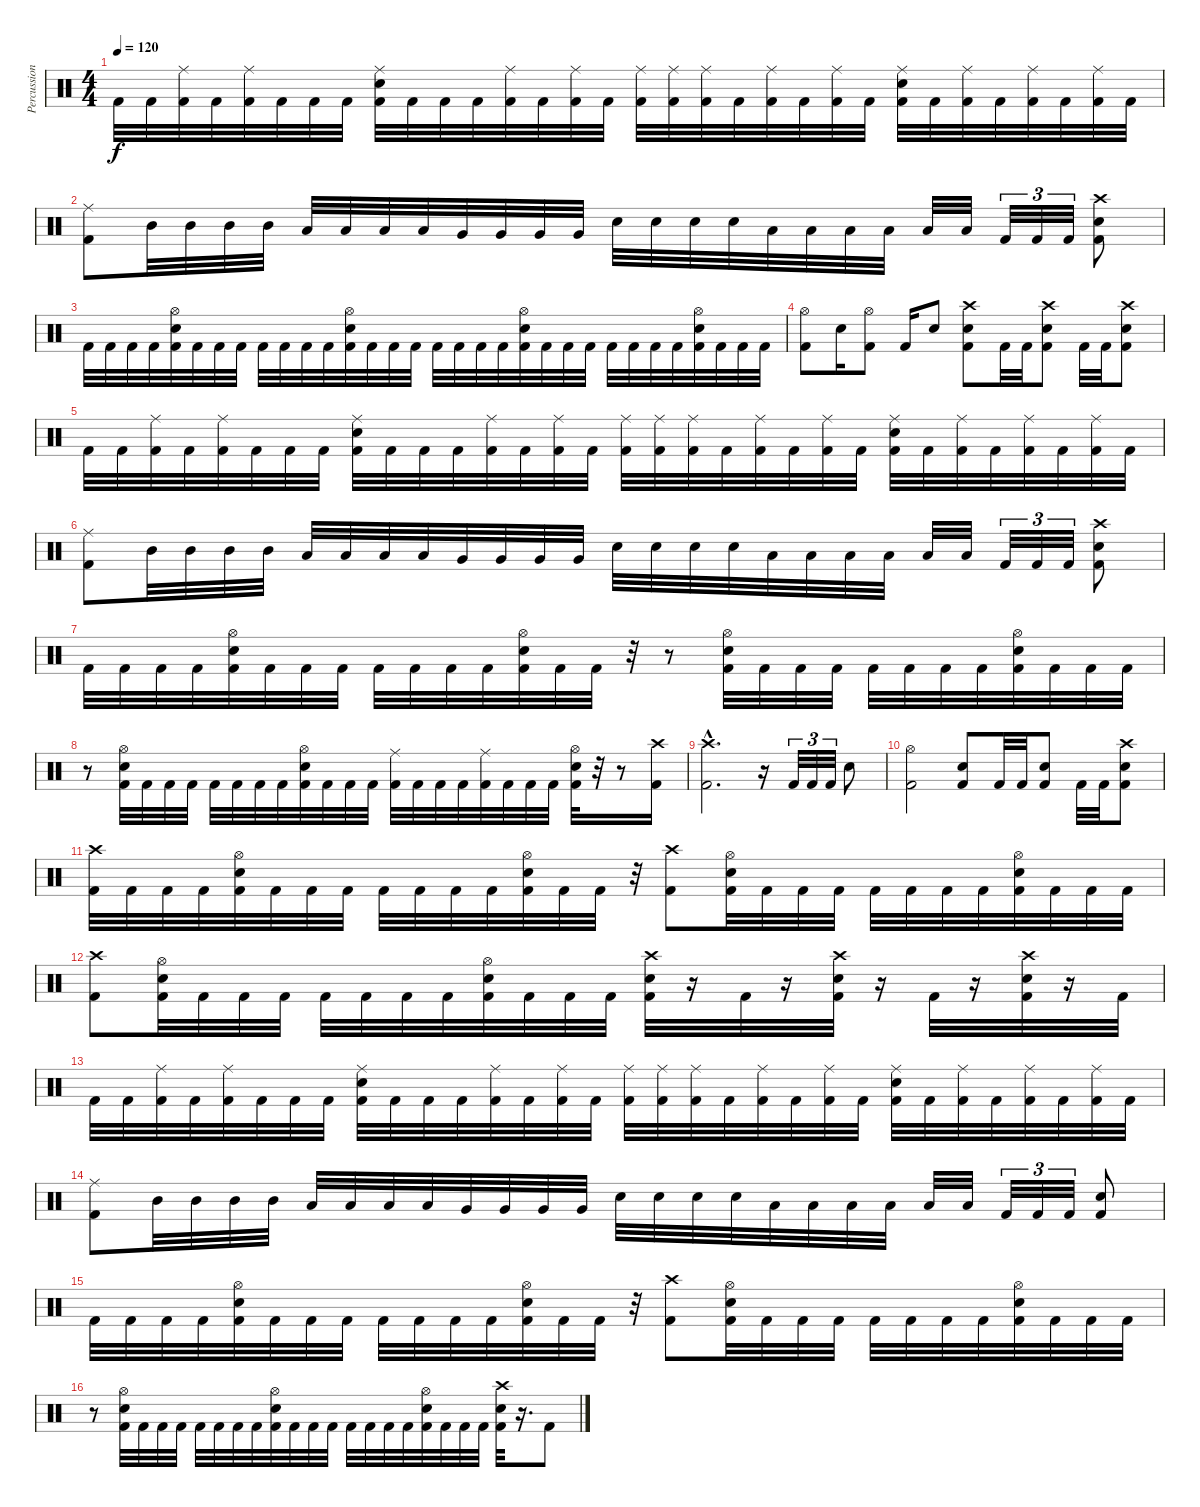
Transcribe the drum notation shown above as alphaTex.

\track ("Percussion" "Percussion") {instrument percussion}
\staff {score}
\articulation defaults
\ts (4 4)
\tempo 120
\clef neutral
\ks c "Kick (hit) 2".32{dy f} "Kick (hit) 2".32
("Ride (middle)" "Kick (hit) 2").32 "Kick (hit) 2".32 ("Ride (middle)" "Kick (hit) 2").32 "Kick (hit) 2".32 "Kick (hit) 2".32 "Kick (hit) 2".32 ("Ride (middle)" "Snare (hit) 2" "Kick (hit) 2").32 "Kick (hit) 2".32 "Kick (hit) 2".32 "Kick (hit) 2".32 ("Ride (middle)" "Kick (hit) 2").32 "Kick (hit) 2".32 ("Ride (middle)" "Kick (hit) 2").32 "Kick (hit) 2".32 ("Ride (middle)" "Kick (hit) 2").32 ("Ride (middle)" "Kick (hit) 2").32 ("Ride (middle)" "Kick (hit) 2").32 "Kick (hit) 2".32 ("Ride (middle)" "Kick (hit) 2").32 "Kick (hit) 2".32 ("Ride (middle)" "Kick (hit) 2").32 "Kick (hit) 2".32 ("Ride (middle)" "Snare (hit) 2" "Kick (hit) 2").32 "Kick (hit) 2".32 ("Ride (middle)" "Kick (hit) 2").32 "Kick (hit) 2".32 ("Ride (middle)" "Kick (hit) 2").32 "Kick (hit) 2".32 ("Ride (middle)" "Kick (hit) 2").32 "Kick (hit) 2".32 |
("Ride (middle)" "Kick (hit) 2").8 "Mid Tom (hit)".32 "Mid Tom (hit)".32 "Mid Tom (hit)".32 "Mid Tom (hit)".32 "Low Tom (hit)".32 "Low Tom (hit)".32 "Low Tom (hit)".32 "Low Tom (hit)".32 "Very Low Tom (hit)".32 "Very Low Tom (hit)".32 "Very Low Tom (hit)".32 "Very Low Tom (hit)".32 "Snare (hit) 2".32 "Snare (hit) 2".32 "Snare (hit) 2".32 "Snare (hit) 2".32 "Low Tom (hit)".32 "Low Tom (hit)".32 "Low Tom (hit)".32 "Low Tom (hit)".32 "Low Tom (hit)".32 "Low Tom (hit)".32 "Kick (hit) 2".32{tu (3 2)} "Kick (hit) 2".32{tu (3 2)} "Kick (hit) 2".32{tu (3 2)} ("Crash high (hit)" "Snare (hit) 2" "Kick (hit) 2").8 |
"Kick (hit) 2".32 "Kick (hit) 2".32 "Kick (hit) 2".32 "Kick (hit) 2".32 ("Hi-Hat (open)" "Snare (hit) 2" "Kick (hit) 2").32 "Kick (hit) 2".32 "Kick (hit) 2".32 "Kick (hit) 2".32 "Kick (hit) 2".32 "Kick (hit) 2".32 "Kick (hit) 2".32 "Kick (hit) 2".32 ("Hi-Hat (open)" "Snare (hit) 2" "Kick (hit) 2").32 "Kick (hit) 2".32 "Kick (hit) 2".32 "Kick (hit) 2".32 "Kick (hit) 2".32 "Kick (hit) 2".32 "Kick (hit) 2".32 "Kick (hit) 2".32 ("Hi-Hat (open)" "Snare (hit) 2" "Kick (hit) 2").32 "Kick (hit) 2".32 "Kick (hit) 2".32 "Kick (hit) 2".32 "Kick (hit) 2".32 "Kick (hit) 2".32 "Kick (hit) 2".32 "Kick (hit) 2".32 ("Hi-Hat (open)" "Snare (hit) 2" "Kick (hit) 2").32 "Kick (hit) 2".32 "Kick (hit) 2".32 "Kick (hit) 2".32 |
("Hi-Hat (open)" "Kick (hit) 2").8 "Snare (hit) 2".16 ("Hi-Hat (open)" "Kick (hit) 2").8 "Kick (hit) 2".16 "Snare (hit) 2".8 ("Crash high (hit)" "Snare (hit) 2" "Kick (hit) 2").8 "Kick (hit) 2".32 "Kick (hit) 2".32 ("Crash high (hit)" "Snare (hit) 2" "Kick (hit) 2").8 "Kick (hit) 2".32 "Kick (hit) 2".32 ("Crash high (hit)" "Snare (hit) 2" "Kick (hit) 2").8 |
"Kick (hit) 2".32 "Kick (hit) 2".32 ("Ride (middle)" "Kick (hit) 2").32 "Kick (hit) 2".32 ("Ride (middle)" "Kick (hit) 2").32 "Kick (hit) 2".32 "Kick (hit) 2".32 "Kick (hit) 2".32 ("Ride (middle)" "Snare (hit) 2" "Kick (hit) 2").32 "Kick (hit) 2".32 "Kick (hit) 2".32 "Kick (hit) 2".32 ("Ride (middle)" "Kick (hit) 2").32 "Kick (hit) 2".32 ("Ride (middle)" "Kick (hit) 2").32 "Kick (hit) 2".32 ("Ride (middle)" "Kick (hit) 2").32 ("Ride (middle)" "Kick (hit) 2").32 ("Ride (middle)" "Kick (hit) 2").32 "Kick (hit) 2".32 ("Ride (middle)" "Kick (hit) 2").32 "Kick (hit) 2".32 ("Ride (middle)" "Kick (hit) 2").32 "Kick (hit) 2".32 ("Ride (middle)" "Snare (hit) 2" "Kick (hit) 2").32 "Kick (hit) 2".32 ("Ride (middle)" "Kick (hit) 2").32 "Kick (hit) 2".32 ("Ride (middle)" "Kick (hit) 2").32 "Kick (hit) 2".32 ("Ride (middle)" "Kick (hit) 2").32 "Kick (hit) 2".32 |
("Ride (middle)" "Kick (hit) 2").8 "Mid Tom (hit)".32 "Mid Tom (hit)".32 "Mid Tom (hit)".32 "Mid Tom (hit)".32 "Low Tom (hit)".32 "Low Tom (hit)".32 "Low Tom (hit)".32 "Low Tom (hit)".32 "Very Low Tom (hit)".32 "Very Low Tom (hit)".32 "Very Low Tom (hit)".32 "Very Low Tom (hit)".32 "Snare (hit) 2".32 "Snare (hit) 2".32 "Snare (hit) 2".32 "Snare (hit) 2".32 "Low Tom (hit)".32 "Low Tom (hit)".32 "Low Tom (hit)".32 "Low Tom (hit)".32 "Low Tom (hit)".32 "Low Tom (hit)".32 "Kick (hit) 2".32{tu (3 2)} "Kick (hit) 2".32{tu (3 2)} "Kick (hit) 2".32{tu (3 2)} ("Crash high (hit)" "Snare (hit) 2" "Kick (hit) 2").8 |
"Kick (hit) 2".32 "Kick (hit) 2".32 "Kick (hit) 2".32 "Kick (hit) 2".32 ("Hi-Hat (open)" "Snare (hit) 2" "Kick (hit) 2").32 "Kick (hit) 2".32 "Kick (hit) 2".32 "Kick (hit) 2".32 "Kick (hit) 2".32 "Kick (hit) 2".32 "Kick (hit) 2".32 "Kick (hit) 2".32 ("Hi-Hat (open)" "Snare (hit) 2" "Kick (hit) 2").32 "Kick (hit) 2".32 "Kick (hit) 2".32 r.32 r.8 ("Hi-Hat (open)" "Snare (hit) 2" "Kick (hit) 2").32 "Kick (hit) 2".32 "Kick (hit) 2".32 "Kick (hit) 2".32 "Kick (hit) 2".32 "Kick (hit) 2".32 "Kick (hit) 2".32 "Kick (hit) 2".32 ("Hi-Hat (open)" "Snare (hit) 2" "Kick (hit) 2").32 "Kick (hit) 2".32 "Kick (hit) 2".32 "Kick (hit) 2".32 |
r.8 ("Hi-Hat (open)" "Snare (hit) 2" "Kick (hit) 2").32 "Kick (hit) 2".32 "Kick (hit) 2".32 "Kick (hit) 2".32 "Kick (hit) 2".32 "Kick (hit) 2".32 "Kick (hit) 2".32 "Kick (hit) 2".32 ("Hi-Hat (open)" "Snare (hit) 2" "Kick (hit) 2").32 "Kick (hit) 2".32 "Kick (hit) 2".32 "Kick (hit) 2".32 ("Ride (middle)" "Kick (hit) 2").32 "Kick (hit) 2".32 "Kick (hit) 2".32 "Kick (hit) 2".32 ("Ride (middle)" "Kick (hit) 2").32 "Kick (hit) 2".32 "Kick (hit) 2".32 "Kick (hit) 2".32 ("Hi-Hat (open)" "Snare (hit) 2" "Kick (hit) 2").32 r.32 r.8 ("Crash high (hit)" "Kick (hit) 2").16 |
("Crash high (hit)"{hac} "Kick (hit) 2"{hac}).2{d} r.16 "Kick (hit) 2".32{tu (3 2)} "Kick (hit) 2".32{tu (3 2)} "Kick (hit) 2".32{tu (3 2)} "Snare (hit) 2".8 |
("Hi-Hat (open)" "Kick (hit) 2").2 ("Snare (hit) 2" "Kick (hit) 2").8 "Kick (hit) 2".32 "Kick (hit) 2".32 ("Snare (hit) 2" "Kick (hit) 2").8 "Kick (hit) 2".32 "Kick (hit) 2".32 ("Crash high (hit)" "Snare (hit) 2" "Kick (hit) 2").8 |
("Crash high (hit)" "Kick (hit) 2").32 "Kick (hit) 2".32 "Kick (hit) 2".32 "Kick (hit) 2".32 ("Hi-Hat (open)" "Snare (hit) 2" "Kick (hit) 2").32 "Kick (hit) 2".32 "Kick (hit) 2".32 "Kick (hit) 2".32 "Kick (hit) 2".32 "Kick (hit) 2".32 "Kick (hit) 2".32 "Kick (hit) 2".32 ("Hi-Hat (open)" "Snare (hit) 2" "Kick (hit) 2").32 "Kick (hit) 2".32 "Kick (hit) 2".32 r.32 ("Crash high (hit)" "Kick (hit) 2").8 ("Hi-Hat (open)" "Snare (hit) 2" "Kick (hit) 2").32 "Kick (hit) 2".32 "Kick (hit) 2".32 "Kick (hit) 2".32 "Kick (hit) 2".32 "Kick (hit) 2".32 "Kick (hit) 2".32 "Kick (hit) 2".32 ("Hi-Hat (open)" "Snare (hit) 2" "Kick (hit) 2").32 "Kick (hit) 2".32 "Kick (hit) 2".32 "Kick (hit) 2".32 |
("Crash high (hit)" "Kick (hit) 2").8 ("Hi-Hat (open)" "Snare (hit) 2" "Kick (hit) 2").32 "Kick (hit) 2".32 "Kick (hit) 2".32 "Kick (hit) 2".32 "Kick (hit) 2".32 "Kick (hit) 2".32 "Kick (hit) 2".32 "Kick (hit) 2".32 ("Hi-Hat (open)" "Snare (hit) 2" "Kick (hit) 2").32 "Kick (hit) 2".32 "Kick (hit) 2".32 "Kick (hit) 2".32 ("Crash high (hit)" "Snare (hit) 2" "Kick (hit) 2").32 r.16 "Kick (hit) 2".32 r.16 ("Crash high (hit)" "Snare (hit) 2" "Kick (hit) 2").32 r.16 "Kick (hit) 2".32 r.16 ("Crash high (hit)" "Snare (hit) 2" "Kick (hit) 2").32 r.16 "Kick (hit) 2".32 |
"Kick (hit) 2".32 "Kick (hit) 2".32 ("Ride (middle)" "Kick (hit) 2").32 "Kick (hit) 2".32 ("Ride (middle)" "Kick (hit) 2").32 "Kick (hit) 2".32 "Kick (hit) 2".32 "Kick (hit) 2".32 ("Ride (middle)" "Snare (hit) 2" "Kick (hit) 2").32 "Kick (hit) 2".32 "Kick (hit) 2".32 "Kick (hit) 2".32 ("Ride (middle)" "Kick (hit) 2").32 "Kick (hit) 2".32 ("Ride (middle)" "Kick (hit) 2").32 "Kick (hit) 2".32 ("Ride (middle)" "Kick (hit) 2").32 ("Ride (middle)" "Kick (hit) 2").32 ("Ride (middle)" "Kick (hit) 2").32 "Kick (hit) 2".32 ("Ride (middle)" "Kick (hit) 2").32 "Kick (hit) 2".32 ("Ride (middle)" "Kick (hit) 2").32 "Kick (hit) 2".32 ("Ride (middle)" "Snare (hit) 2" "Kick (hit) 2").32 "Kick (hit) 2".32 ("Ride (middle)" "Kick (hit) 2").32 "Kick (hit) 2".32 ("Ride (middle)" "Kick (hit) 2").32 "Kick (hit) 2".32 ("Ride (middle)" "Kick (hit) 2").32 "Kick (hit) 2".32 |
("Ride (middle)" "Kick (hit) 2").8 "Mid Tom (hit)".32 "Mid Tom (hit)".32 "Mid Tom (hit)".32 "Mid Tom (hit)".32 "Low Tom (hit)".32 "Low Tom (hit)".32 "Low Tom (hit)".32 "Low Tom (hit)".32 "Very Low Tom (hit)".32 "Very Low Tom (hit)".32 "Very Low Tom (hit)".32 "Very Low Tom (hit)".32 "Snare (hit) 2".32 "Snare (hit) 2".32 "Snare (hit) 2".32 "Snare (hit) 2".32 "Low Tom (hit)".32 "Low Tom (hit)".32 "Low Tom (hit)".32 "Low Tom (hit)".32 "Low Tom (hit)".32 "Low Tom (hit)".32 "Kick (hit) 2".32{tu (3 2)} "Kick (hit) 2".32{tu (3 2)} "Kick (hit) 2".32{tu (3 2)} ("Snare (hit) 2" "Kick (hit) 2").8 |
"Kick (hit) 2".32 "Kick (hit) 2".32 "Kick (hit) 2".32 "Kick (hit) 2".32 ("Hi-Hat (open)" "Snare (hit) 2" "Kick (hit) 2").32 "Kick (hit) 2".32 "Kick (hit) 2".32 "Kick (hit) 2".32 "Kick (hit) 2".32 "Kick (hit) 2".32 "Kick (hit) 2".32 "Kick (hit) 2".32 ("Hi-Hat (open)" "Snare (hit) 2" "Kick (hit) 2").32 "Kick (hit) 2".32 "Kick (hit) 2".32 r.32 ("Crash high (hit)" "Kick (hit) 2").8 ("Hi-Hat (open)" "Snare (hit) 2" "Kick (hit) 2").32 "Kick (hit) 2".32 "Kick (hit) 2".32 "Kick (hit) 2".32 "Kick (hit) 2".32 "Kick (hit) 2".32 "Kick (hit) 2".32 "Kick (hit) 2".32 ("Hi-Hat (open)" "Snare (hit) 2" "Kick (hit) 2").32 "Kick (hit) 2".32 "Kick (hit) 2".32 "Kick (hit) 2".32 |
r.8 ("Hi-Hat (open)" "Snare (hit) 2" "Kick (hit) 2").32 "Kick (hit) 2".32 "Kick (hit) 2".32 "Kick (hit) 2".32 "Kick (hit) 2".32 "Kick (hit) 2".32 "Kick (hit) 2".32 "Kick (hit) 2".32 ("Hi-Hat (open)" "Snare (hit) 2" "Kick (hit) 2").32 "Kick (hit) 2".32 "Kick (hit) 2".32 "Kick (hit) 2".32 "Kick (hit) 2".32 "Kick (hit) 2".32 "Kick (hit) 2".32 "Kick (hit) 2".32 ("Hi-Hat (open)" "Snare (hit) 2" "Kick (hit) 2").32 "Kick (hit) 2".32 "Kick (hit) 2".32 "Kick (hit) 2".32 ("Crash high (hit)" "Snare (hit) 2" "Kick (hit) 2").32 r.16{d} "Kick (hit) 2".8
